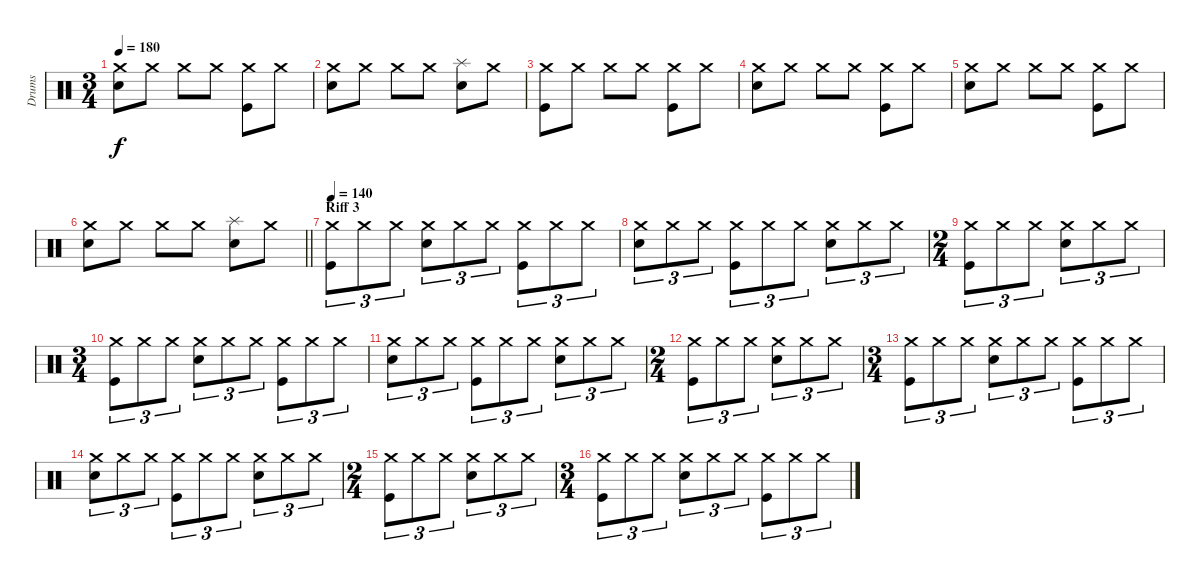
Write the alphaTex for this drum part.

\track ("Drums" "Drums") {instrument percussion}
\staff {score}
\articulation defaults
\ts (3 4)
\tempo 180
\clef neutral
\ks c
("Crash medium (hit)" "Electric Snare (hit)").8{dy f} "Crash medium (hit)".8 "Crash medium (hit)".8 "Crash medium (hit)".8 ("Crash medium (hit)" "Kick (hit)").8 "Crash medium (hit)".8 |
("Crash medium (hit)" "Electric Snare (hit)").8 "Crash medium (hit)".8 "Crash medium (hit)".8 "Crash medium (hit)".8 ("Splash (hit)" "Electric Snare (hit)").8 "Crash medium (hit)".8 |
("Crash medium (hit)" "Kick (hit)").8 "Crash medium (hit)".8 "Crash medium (hit)".8 "Crash medium (hit)".8 ("Crash medium (hit)" "Kick (hit)").8 "Crash medium (hit)".8 |
("Crash medium (hit)" "Electric Snare (hit)").8 "Crash medium (hit)".8 "Crash medium (hit)".8 "Crash medium (hit)".8 ("Crash medium (hit)" "Kick (hit)").8 "Crash medium (hit)".8 |
("Crash medium (hit)" "Electric Snare (hit)").8 "Crash medium (hit)".8 "Crash medium (hit)".8 "Crash medium (hit)".8 ("Crash medium (hit)" "Kick (hit)").8 "Crash medium (hit)".8 |
\barLineRight lightlight
("Crash medium (hit)" "Electric Snare (hit)").8 "Crash medium (hit)".8 "Crash medium (hit)".8 "Crash medium (hit)".8 ("Splash (hit)" "Electric Snare (hit)").8 "Crash medium (hit)".8 |
\section ("" "Riff 3")
\tempo 140
("Crash medium (hit)" "Kick (hit)").8{tu (3 2)} "Crash medium (hit)".8{tu (3 2)} "Crash medium (hit)".8{tu (3 2)} ("Crash medium (hit)" "Electric Snare (hit)").8{tu (3 2)} "Crash medium (hit)".8{tu (3 2)} "Crash medium (hit)".8{tu (3 2)} ("Crash medium (hit)" "Kick (hit)").8{tu (3 2)} "Crash medium (hit)".8{tu (3 2)} "Crash medium (hit)".8{tu (3 2)} |
("Crash medium (hit)" "Electric Snare (hit)").8{tu (3 2)} "Crash medium (hit)".8{tu (3 2)} "Crash medium (hit)".8{tu (3 2)} ("Crash medium (hit)" "Kick (hit)").8{tu (3 2)} "Crash medium (hit)".8{tu (3 2)} "Crash medium (hit)".8{tu (3 2)} ("Crash medium (hit)" "Electric Snare (hit)").8{tu (3 2)} "Crash medium (hit)".8{tu (3 2)} "Crash medium (hit)".8{tu (3 2)} |
\ts (2 4)
("Crash medium (hit)" "Kick (hit)").8{tu (3 2)} "Crash medium (hit)".8{tu (3 2)} "Crash medium (hit)".8{tu (3 2)} ("Crash medium (hit)" "Electric Snare (hit)").8{tu (3 2)} "Crash medium (hit)".8{tu (3 2)} "Crash medium (hit)".8{tu (3 2)} |
\ts (3 4)
("Crash medium (hit)" "Kick (hit)").8{tu (3 2)} "Crash medium (hit)".8{tu (3 2)} "Crash medium (hit)".8{tu (3 2)} ("Crash medium (hit)" "Electric Snare (hit)").8{tu (3 2)} "Crash medium (hit)".8{tu (3 2)} "Crash medium (hit)".8{tu (3 2)} ("Crash medium (hit)" "Kick (hit)").8{tu (3 2)} "Crash medium (hit)".8{tu (3 2)} "Crash medium (hit)".8{tu (3 2)} |
("Crash medium (hit)" "Electric Snare (hit)").8{tu (3 2)} "Crash medium (hit)".8{tu (3 2)} "Crash medium (hit)".8{tu (3 2)} ("Crash medium (hit)" "Kick (hit)").8{tu (3 2)} "Crash medium (hit)".8{tu (3 2)} "Crash medium (hit)".8{tu (3 2)} ("Crash medium (hit)" "Electric Snare (hit)").8{tu (3 2)} "Crash medium (hit)".8{tu (3 2)} "Crash medium (hit)".8{tu (3 2)} |
\ts (2 4)
("Crash medium (hit)" "Kick (hit)").8{tu (3 2)} "Crash medium (hit)".8{tu (3 2)} "Crash medium (hit)".8{tu (3 2)} ("Crash medium (hit)" "Electric Snare (hit)").8{tu (3 2)} "Crash medium (hit)".8{tu (3 2)} "Crash medium (hit)".8{tu (3 2)} |
\ts (3 4)
("Crash medium (hit)" "Kick (hit)").8{tu (3 2)} "Crash medium (hit)".8{tu (3 2)} "Crash medium (hit)".8{tu (3 2)} ("Crash medium (hit)" "Electric Snare (hit)").8{tu (3 2)} "Crash medium (hit)".8{tu (3 2)} "Crash medium (hit)".8{tu (3 2)} ("Crash medium (hit)" "Kick (hit)").8{tu (3 2)} "Crash medium (hit)".8{tu (3 2)} "Crash medium (hit)".8{tu (3 2)} |
("Crash medium (hit)" "Electric Snare (hit)").8{tu (3 2)} "Crash medium (hit)".8{tu (3 2)} "Crash medium (hit)".8{tu (3 2)} ("Crash medium (hit)" "Kick (hit)").8{tu (3 2)} "Crash medium (hit)".8{tu (3 2)} "Crash medium (hit)".8{tu (3 2)} ("Crash medium (hit)" "Electric Snare (hit)").8{tu (3 2)} "Crash medium (hit)".8{tu (3 2)} "Crash medium (hit)".8{tu (3 2)} |
\ts (2 4)
("Crash medium (hit)" "Kick (hit)").8{tu (3 2)} "Crash medium (hit)".8{tu (3 2)} "Crash medium (hit)".8{tu (3 2)} ("Crash medium (hit)" "Electric Snare (hit)").8{tu (3 2)} "Crash medium (hit)".8{tu (3 2)} "Crash medium (hit)".8{tu (3 2)} |
\ts (3 4)
("Crash medium (hit)" "Kick (hit)").8{tu (3 2)} "Crash medium (hit)".8{tu (3 2)} "Crash medium (hit)".8{tu (3 2)} ("Crash medium (hit)" "Electric Snare (hit)").8{tu (3 2)} "Crash medium (hit)".8{tu (3 2)} "Crash medium (hit)".8{tu (3 2)} ("Crash medium (hit)" "Kick (hit)").8{tu (3 2)} "Crash medium (hit)".8{tu (3 2)} "Crash medium (hit)".8{tu (3 2)}
